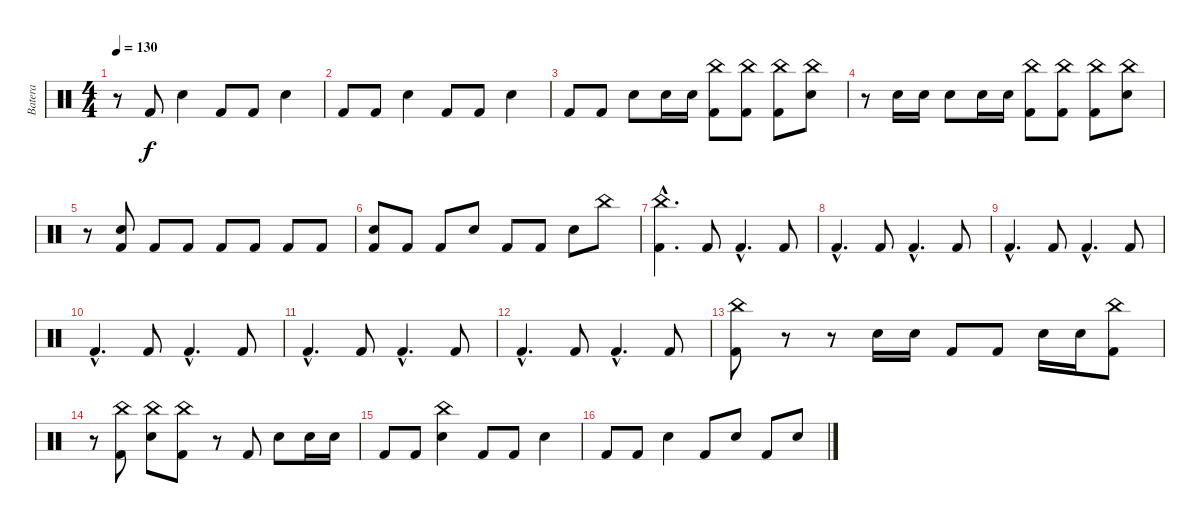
\track ("Batera" "Batera") {instrument percussion}
\staff {score}
\articulation defaults
\ts (4 4)
\tempo 130
\clef neutral
\ks c
r.8{dy f} "Kick (hit) 2".8 "Snare (hit) 2".4 "Kick (hit) 2".8 "Kick (hit) 2".8 "Snare (hit) 2".4 |
"Kick (hit) 2".8 "Kick (hit) 2".8 "Snare (hit) 2".4 "Kick (hit) 2".8 "Kick (hit) 2".8 "Snare (hit) 2".4 |
"Kick (hit) 2".8 "Kick (hit) 2".8 "Snare (hit) 2".8 "Snare (hit) 2".16 "Snare (hit) 2".16 ("Kick (hit) 2" "China (hit)").8 ("Kick (hit) 2" "China (hit)").8 ("Kick (hit) 2" "China (hit)").8 ("Snare (hit) 2" "China (hit)").8 |
r.8 "Snare (hit) 2".16 "Snare (hit) 2".16 "Snare (hit) 2".8 "Snare (hit) 2".16 "Snare (hit) 2".16 ("Kick (hit) 2" "China (hit)").8 ("Kick (hit) 2" "China (hit)").8 ("Kick (hit) 2" "China (hit)").8 ("Snare (hit) 2" "China (hit)").8 |
r.8 ("Kick (hit) 2" "Snare (hit) 2").8 "Kick (hit) 2".8 "Kick (hit) 2".8 "Kick (hit) 2".8 "Kick (hit) 2".8 "Kick (hit) 2".8 "Kick (hit) 2".8 |
("Kick (hit) 2" "Snare (hit) 2").8 "Kick (hit) 2".8 "Kick (hit) 2".8 "Snare (hit) 2".8 "Kick (hit) 2".8 "Kick (hit) 2".8 "Snare (hit) 2".8 "China (hit)".8 |
("Kick (hit) 2"{hac} "China (hit)"{hac}).4{d} "Kick (hit) 2".8 "Kick (hit) 2"{hac}.4{d} "Kick (hit) 2".8 |
"Kick (hit) 2"{hac}.4{d} "Kick (hit) 2".8 "Kick (hit) 2"{hac}.4{d} "Kick (hit) 2".8 |
"Kick (hit) 2"{hac}.4{d} "Kick (hit) 2".8 "Kick (hit) 2"{hac}.4{d} "Kick (hit) 2".8 |
"Kick (hit) 2"{hac}.4{d} "Kick (hit) 2".8 "Kick (hit) 2"{hac}.4{d} "Kick (hit) 2".8 |
"Kick (hit) 2"{hac}.4{d} "Kick (hit) 2".8 "Kick (hit) 2"{hac}.4{d} "Kick (hit) 2".8 |
"Kick (hit) 2"{hac}.4{d} "Kick (hit) 2".8 "Kick (hit) 2"{hac}.4{d} "Kick (hit) 2".8 |
("Kick (hit) 2" "China (hit)").8 r.8 r.8 "Snare (hit) 2".16 "Snare (hit) 2".16 "Kick (hit) 2".8 "Kick (hit) 2".8 "Snare (hit) 2".16 "Snare (hit) 2".16 ("Kick (hit) 2" "China (hit)").8 |
r.8 ("Kick (hit) 2" "China (hit)").8 ("Snare (hit) 2" "China (hit)").8 ("Kick (hit) 2" "China (hit)").8 r.8 "Kick (hit) 2".8 "Snare (hit) 2".8 "Snare (hit) 2".16 "Snare (hit) 2".16 |
"Kick (hit) 2".8 "Kick (hit) 2".8 ("Snare (hit) 2" "China (hit)").4 "Kick (hit) 2".8 "Kick (hit) 2".8 "Snare (hit) 2".4 |
"Kick (hit) 2".8 "Kick (hit) 2".8 "Snare (hit) 2".4 "Kick (hit) 2".8 "Snare (hit) 2".8 "Kick (hit) 2".8 "Snare (hit) 2".8
